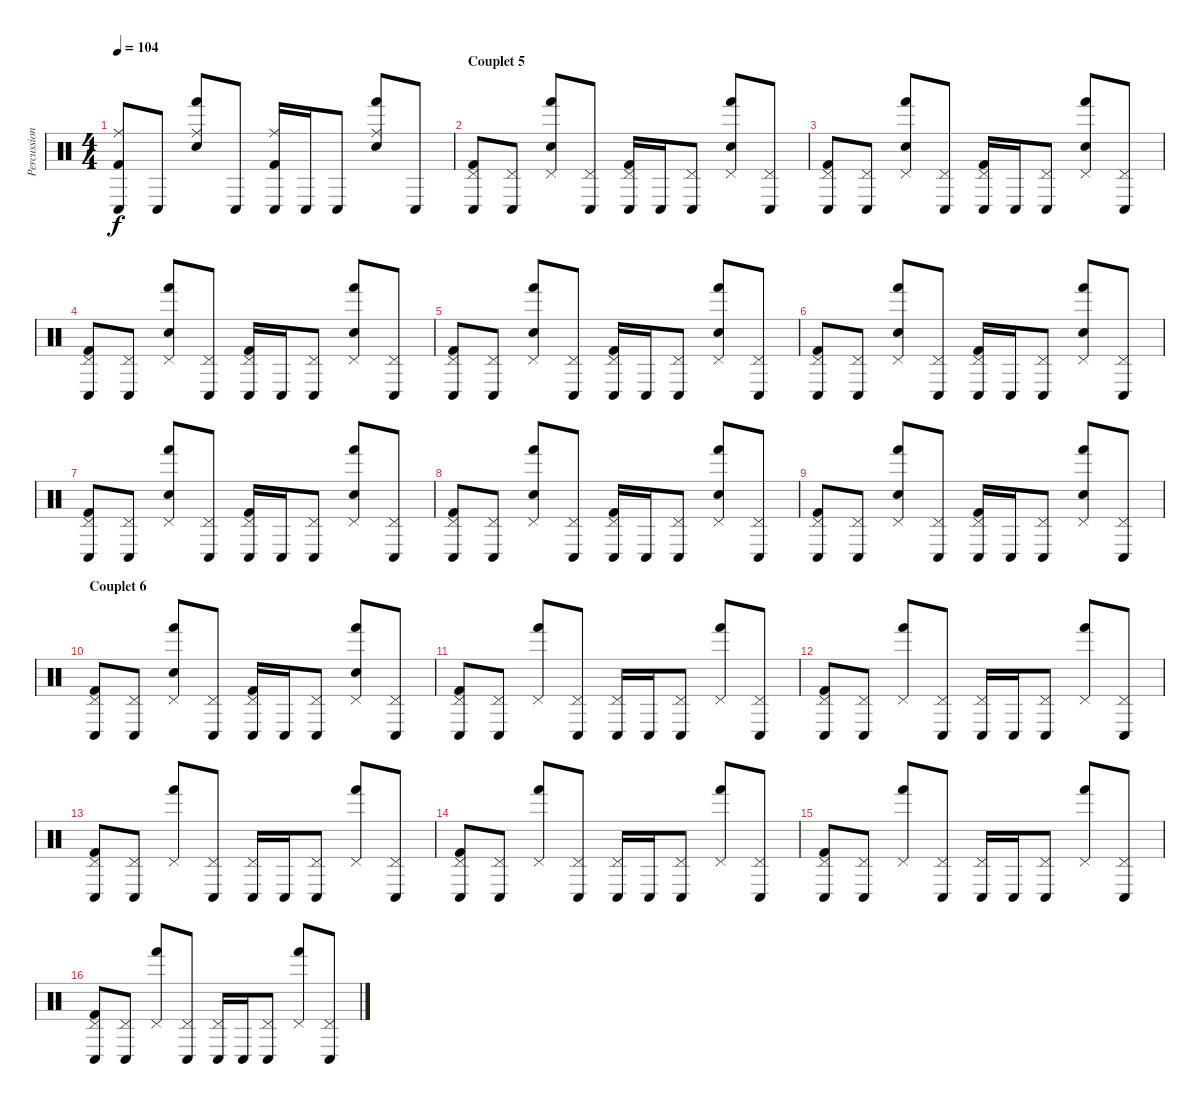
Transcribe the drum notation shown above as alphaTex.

\track ("Percussions" "Percussion") {instrument percussion}
\staff {score}
\articulation defaults
\ts (4 4)
\tempo 104
\clef neutral
\ks c
("Ride (middle)" "Conga low (hit)" "Kick (hit) 2").8{dy f} "Conga low (hit)".8 ("Ride (middle)" "Snare (hit) 2" "Hand (hit)").8 "Conga low (hit)".8 ("Ride (middle)" "Conga low (hit)" "Kick (hit) 2").16 "Conga low (hit)".16 "Conga low (hit)".8 ("Ride (middle)" "Snare (hit) 2" "Hand (hit)").8 "Conga low (hit)".8 |
\section ("" "Couplet 5")
("Pedal Hi-Hat (hit)" "Conga low (hit)" "Kick (hit) 2").8 ("Pedal Hi-Hat (hit)" "Conga low (hit)").8 ("Pedal Hi-Hat (hit)" "Snare (hit) 2" "Hand (hit)").8 ("Pedal Hi-Hat (hit)" "Conga low (hit)").8 ("Pedal Hi-Hat (hit)" "Conga low (hit)" "Kick (hit) 2").16 "Conga low (hit)".16 ("Pedal Hi-Hat (hit)" "Conga low (hit)").8 ("Pedal Hi-Hat (hit)" "Snare (hit) 2" "Hand (hit)").8 ("Pedal Hi-Hat (hit)" "Conga low (hit)").8 |
("Pedal Hi-Hat (hit)" "Conga low (hit)" "Kick (hit) 2").8 ("Pedal Hi-Hat (hit)" "Conga low (hit)").8 ("Pedal Hi-Hat (hit)" "Snare (hit) 2" "Hand (hit)").8 ("Pedal Hi-Hat (hit)" "Conga low (hit)").8 ("Pedal Hi-Hat (hit)" "Conga low (hit)" "Kick (hit) 2").16 "Conga low (hit)".16 ("Pedal Hi-Hat (hit)" "Conga low (hit)").8 ("Pedal Hi-Hat (hit)" "Snare (hit) 2" "Hand (hit)").8 ("Pedal Hi-Hat (hit)" "Conga low (hit)").8 |
("Pedal Hi-Hat (hit)" "Conga low (hit)" "Kick (hit) 2").8 ("Pedal Hi-Hat (hit)" "Conga low (hit)").8 ("Pedal Hi-Hat (hit)" "Snare (hit) 2" "Hand (hit)").8 ("Pedal Hi-Hat (hit)" "Conga low (hit)").8 ("Pedal Hi-Hat (hit)" "Conga low (hit)" "Kick (hit) 2").16 "Conga low (hit)".16 ("Pedal Hi-Hat (hit)" "Conga low (hit)").8 ("Pedal Hi-Hat (hit)" "Snare (hit) 2" "Hand (hit)").8 ("Pedal Hi-Hat (hit)" "Conga low (hit)").8 |
("Pedal Hi-Hat (hit)" "Conga low (hit)" "Kick (hit) 2").8 ("Pedal Hi-Hat (hit)" "Conga low (hit)").8 ("Pedal Hi-Hat (hit)" "Snare (hit) 2" "Hand (hit)").8 ("Pedal Hi-Hat (hit)" "Conga low (hit)").8 ("Pedal Hi-Hat (hit)" "Conga low (hit)" "Kick (hit) 2").16 "Conga low (hit)".16 ("Pedal Hi-Hat (hit)" "Conga low (hit)").8 ("Pedal Hi-Hat (hit)" "Snare (hit) 2" "Hand (hit)").8 ("Pedal Hi-Hat (hit)" "Conga low (hit)").8 |
("Pedal Hi-Hat (hit)" "Conga low (hit)" "Kick (hit) 2").8 ("Pedal Hi-Hat (hit)" "Conga low (hit)").8 ("Pedal Hi-Hat (hit)" "Snare (hit) 2" "Hand (hit)").8 ("Pedal Hi-Hat (hit)" "Conga low (hit)").8 ("Pedal Hi-Hat (hit)" "Conga low (hit)" "Kick (hit) 2").16 "Conga low (hit)".16 ("Pedal Hi-Hat (hit)" "Conga low (hit)").8 ("Pedal Hi-Hat (hit)" "Snare (hit) 2" "Hand (hit)").8 ("Pedal Hi-Hat (hit)" "Conga low (hit)").8 |
("Pedal Hi-Hat (hit)" "Conga low (hit)" "Kick (hit) 2").8 ("Pedal Hi-Hat (hit)" "Conga low (hit)").8 ("Pedal Hi-Hat (hit)" "Snare (hit) 2" "Hand (hit)").8 ("Pedal Hi-Hat (hit)" "Conga low (hit)").8 ("Pedal Hi-Hat (hit)" "Conga low (hit)" "Kick (hit) 2").16 "Conga low (hit)".16 ("Pedal Hi-Hat (hit)" "Conga low (hit)").8 ("Pedal Hi-Hat (hit)" "Snare (hit) 2" "Hand (hit)").8 ("Pedal Hi-Hat (hit)" "Conga low (hit)").8 |
("Pedal Hi-Hat (hit)" "Conga low (hit)" "Kick (hit) 2").8 ("Pedal Hi-Hat (hit)" "Conga low (hit)").8 ("Pedal Hi-Hat (hit)" "Snare (hit) 2" "Hand (hit)").8 ("Pedal Hi-Hat (hit)" "Conga low (hit)").8 ("Pedal Hi-Hat (hit)" "Conga low (hit)" "Kick (hit) 2").16 "Conga low (hit)".16 ("Pedal Hi-Hat (hit)" "Conga low (hit)").8 ("Pedal Hi-Hat (hit)" "Snare (hit) 2" "Hand (hit)").8 ("Pedal Hi-Hat (hit)" "Conga low (hit)").8 |
("Pedal Hi-Hat (hit)" "Conga low (hit)" "Kick (hit) 2").8 ("Pedal Hi-Hat (hit)" "Conga low (hit)").8 ("Pedal Hi-Hat (hit)" "Snare (hit) 2" "Hand (hit)").8 ("Pedal Hi-Hat (hit)" "Conga low (hit)").8 ("Pedal Hi-Hat (hit)" "Conga low (hit)" "Kick (hit) 2").16 "Conga low (hit)".16 ("Pedal Hi-Hat (hit)" "Conga low (hit)").8 ("Pedal Hi-Hat (hit)" "Snare (hit) 2" "Hand (hit)").8 ("Pedal Hi-Hat (hit)" "Conga low (hit)").8 |
\section ("" "Couplet 6")
("Pedal Hi-Hat (hit)" "Conga low (hit)" "Kick (hit) 2").8 ("Pedal Hi-Hat (hit)" "Conga low (hit)").8 ("Pedal Hi-Hat (hit)" "Snare (hit) 2" "Hand (hit)").8 ("Pedal Hi-Hat (hit)" "Conga low (hit)").8 ("Pedal Hi-Hat (hit)" "Conga low (hit)" "Kick (hit) 2").16 "Conga low (hit)".16 ("Pedal Hi-Hat (hit)" "Conga low (hit)").8 ("Pedal Hi-Hat (hit)" "Snare (hit) 2" "Hand (hit)").8 ("Pedal Hi-Hat (hit)" "Conga low (hit)").8 |
("Pedal Hi-Hat (hit)" "Conga low (hit)" "Kick (hit) 2").8 ("Pedal Hi-Hat (hit)" "Conga low (hit)").8 ("Pedal Hi-Hat (hit)" "Hand (hit)").8 ("Pedal Hi-Hat (hit)" "Conga low (hit)").8 ("Pedal Hi-Hat (hit)" "Conga low (hit)").16 "Conga low (hit)".16 ("Pedal Hi-Hat (hit)" "Conga low (hit)").8 ("Pedal Hi-Hat (hit)" "Hand (hit)").8 ("Pedal Hi-Hat (hit)" "Conga low (hit)").8 |
("Pedal Hi-Hat (hit)" "Conga low (hit)" "Kick (hit) 2").8 ("Pedal Hi-Hat (hit)" "Conga low (hit)").8 ("Pedal Hi-Hat (hit)" "Hand (hit)").8 ("Pedal Hi-Hat (hit)" "Conga low (hit)").8 ("Pedal Hi-Hat (hit)" "Conga low (hit)").16 "Conga low (hit)".16 ("Pedal Hi-Hat (hit)" "Conga low (hit)").8 ("Pedal Hi-Hat (hit)" "Hand (hit)").8 ("Pedal Hi-Hat (hit)" "Conga low (hit)").8 |
("Pedal Hi-Hat (hit)" "Conga low (hit)" "Kick (hit) 2").8 ("Pedal Hi-Hat (hit)" "Conga low (hit)").8 ("Pedal Hi-Hat (hit)" "Hand (hit)").8 ("Pedal Hi-Hat (hit)" "Conga low (hit)").8 ("Pedal Hi-Hat (hit)" "Conga low (hit)").16 "Conga low (hit)".16 ("Pedal Hi-Hat (hit)" "Conga low (hit)").8 ("Pedal Hi-Hat (hit)" "Hand (hit)").8 ("Pedal Hi-Hat (hit)" "Conga low (hit)").8 |
("Pedal Hi-Hat (hit)" "Conga low (hit)" "Kick (hit) 2").8 ("Pedal Hi-Hat (hit)" "Conga low (hit)").8 ("Pedal Hi-Hat (hit)" "Hand (hit)").8 ("Pedal Hi-Hat (hit)" "Conga low (hit)").8 ("Pedal Hi-Hat (hit)" "Conga low (hit)").16 "Conga low (hit)".16 ("Pedal Hi-Hat (hit)" "Conga low (hit)").8 ("Pedal Hi-Hat (hit)" "Hand (hit)").8 ("Pedal Hi-Hat (hit)" "Conga low (hit)").8 |
("Pedal Hi-Hat (hit)" "Conga low (hit)" "Kick (hit) 2").8 ("Pedal Hi-Hat (hit)" "Conga low (hit)").8 ("Pedal Hi-Hat (hit)" "Hand (hit)").8 ("Pedal Hi-Hat (hit)" "Conga low (hit)").8 ("Pedal Hi-Hat (hit)" "Conga low (hit)").16 "Conga low (hit)".16 ("Pedal Hi-Hat (hit)" "Conga low (hit)").8 ("Pedal Hi-Hat (hit)" "Hand (hit)").8 ("Pedal Hi-Hat (hit)" "Conga low (hit)").8 |
("Pedal Hi-Hat (hit)" "Conga low (hit)" "Kick (hit) 2").8 ("Pedal Hi-Hat (hit)" "Conga low (hit)").8 ("Pedal Hi-Hat (hit)" "Hand (hit)").8 ("Pedal Hi-Hat (hit)" "Conga low (hit)").8 ("Pedal Hi-Hat (hit)" "Conga low (hit)").16 "Conga low (hit)".16 ("Pedal Hi-Hat (hit)" "Conga low (hit)").8 ("Pedal Hi-Hat (hit)" "Hand (hit)").8 ("Pedal Hi-Hat (hit)" "Conga low (hit)").8
